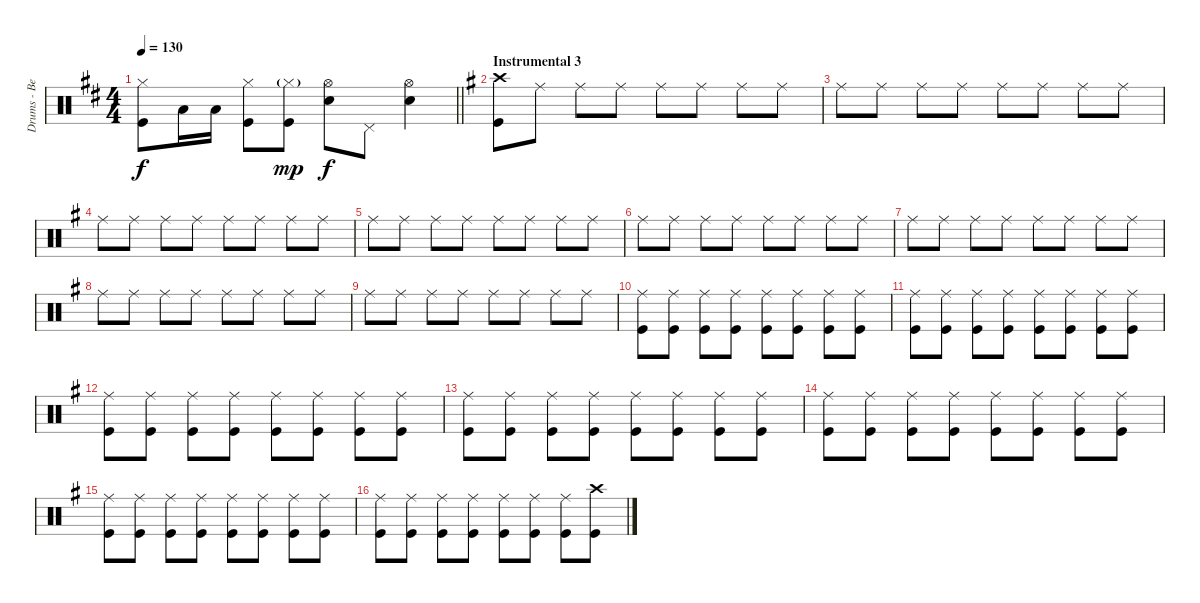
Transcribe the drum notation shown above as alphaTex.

\track ("Drums - Ben Johnston" "Drums - Be") {instrument percussion}
\staff {score}
\articulation defaults
\ts (4 4)
\tempo 130
\clef neutral
\barLineRight lightlight
\ks d
("Hi-Hat (closed)" "Kick (hit)").8{dy f} "Low Tom (hit)".16 "Low Tom (hit)".16 ("Hi-Hat (closed)" "Kick (hit)").8 ("Hi-Hat (closed)"{g} "Kick (hit)").8{dy mp} ("Hi-Hat (open)" "Snare (hit) 2").8{dy f} "Pedal Hi-Hat (hit)".8 ("Hi-Hat (open)" "Snare (hit) 2").4 |
\section ("" "Instrumental 3")
\ks g
("Crash high (hit)" "Kick (hit)").8 "Ride (middle)".8{volume 8} "Ride (middle)".8 "Ride (middle)".8 "Ride (middle)".8 "Ride (middle)".8 "Ride (middle)".8 "Ride (middle)".8 |
"Ride (middle)".8 "Ride (middle)".8 "Ride (middle)".8 "Ride (middle)".8 "Ride (middle)".8 "Ride (middle)".8 "Ride (middle)".8 "Ride (middle)".8 |
"Ride (middle)".8 "Ride (middle)".8 "Ride (middle)".8 "Ride (middle)".8 "Ride (middle)".8 "Ride (middle)".8 "Ride (middle)".8 "Ride (middle)".8 |
"Ride (middle)".8 "Ride (middle)".8 "Ride (middle)".8 "Ride (middle)".8 "Ride (middle)".8 "Ride (middle)".8 "Ride (middle)".8 "Ride (middle)".8 |
"Ride (middle)".8 "Ride (middle)".8 "Ride (middle)".8 "Ride (middle)".8 "Ride (middle)".8 "Ride (middle)".8 "Ride (middle)".8 "Ride (middle)".8 |
"Ride (middle)".8 "Ride (middle)".8 "Ride (middle)".8 "Ride (middle)".8 "Ride (middle)".8 "Ride (middle)".8 "Ride (middle)".8 "Ride (middle)".8 |
"Ride (middle)".8 "Ride (middle)".8 "Ride (middle)".8 "Ride (middle)".8 "Ride (middle)".8 "Ride (middle)".8 "Ride (middle)".8 "Ride (middle)".8 |
"Ride (middle)".8 "Ride (middle)".8 "Ride (middle)".8 "Ride (middle)".8 "Ride (middle)".8 "Ride (middle)".8 "Ride (middle)".8 "Ride (middle)".8 |
("Ride (middle)" "Kick (hit)").8 ("Ride (middle)" "Kick (hit)").8 ("Ride (middle)" "Kick (hit)").8 ("Ride (middle)" "Kick (hit)").8 ("Ride (middle)" "Kick (hit)").8 ("Ride (middle)" "Kick (hit)").8 ("Ride (middle)" "Kick (hit)").8 ("Ride (middle)" "Kick (hit)").8 |
("Ride (middle)" "Kick (hit)").8 ("Ride (middle)" "Kick (hit)").8 ("Ride (middle)" "Kick (hit)").8 ("Ride (middle)" "Kick (hit)").8 ("Ride (middle)" "Kick (hit)").8 ("Ride (middle)" "Kick (hit)").8 ("Ride (middle)" "Kick (hit)").8 ("Ride (middle)" "Kick (hit)").8 |
("Ride (middle)" "Kick (hit)").8{volume 10} ("Ride (middle)" "Kick (hit)").8 ("Ride (middle)" "Kick (hit)").8 ("Ride (middle)" "Kick (hit)").8 ("Ride (middle)" "Kick (hit)").8 ("Ride (middle)" "Kick (hit)").8 ("Ride (middle)" "Kick (hit)").8 ("Ride (middle)" "Kick (hit)").8 |
("Ride (middle)" "Kick (hit)").8{volume 11} ("Ride (middle)" "Kick (hit)").8 ("Ride (middle)" "Kick (hit)").8 ("Ride (middle)" "Kick (hit)").8 ("Ride (middle)" "Kick (hit)").8 ("Ride (middle)" "Kick (hit)").8 ("Ride (middle)" "Kick (hit)").8 ("Ride (middle)" "Kick (hit)").8 |
("Ride (middle)" "Kick (hit)").8{volume 12} ("Ride (middle)" "Kick (hit)").8 ("Ride (middle)" "Kick (hit)").8 ("Ride (middle)" "Kick (hit)").8 ("Ride (middle)" "Kick (hit)").8 ("Ride (middle)" "Kick (hit)").8 ("Ride (middle)" "Kick (hit)").8 ("Ride (middle)" "Kick (hit)").8 |
("Ride (middle)" "Kick (hit)").8{volume 13} ("Ride (middle)" "Kick (hit)").8 ("Ride (middle)" "Kick (hit)").8 ("Ride (middle)" "Kick (hit)").8 ("Ride (middle)" "Kick (hit)").8 ("Ride (middle)" "Kick (hit)").8 ("Ride (middle)" "Kick (hit)").8 ("Ride (middle)" "Kick (hit)").8 |
("Ride (middle)" "Kick (hit)").8 ("Ride (middle)" "Kick (hit)").8 ("Ride (middle)" "Kick (hit)").8 ("Ride (middle)" "Kick (hit)").8 ("Ride (middle)" "Kick (hit)").8 ("Ride (middle)" "Kick (hit)").8 ("Ride (middle)" "Kick (hit)").8 ("Crash high (hit)" "Kick (hit)").8
